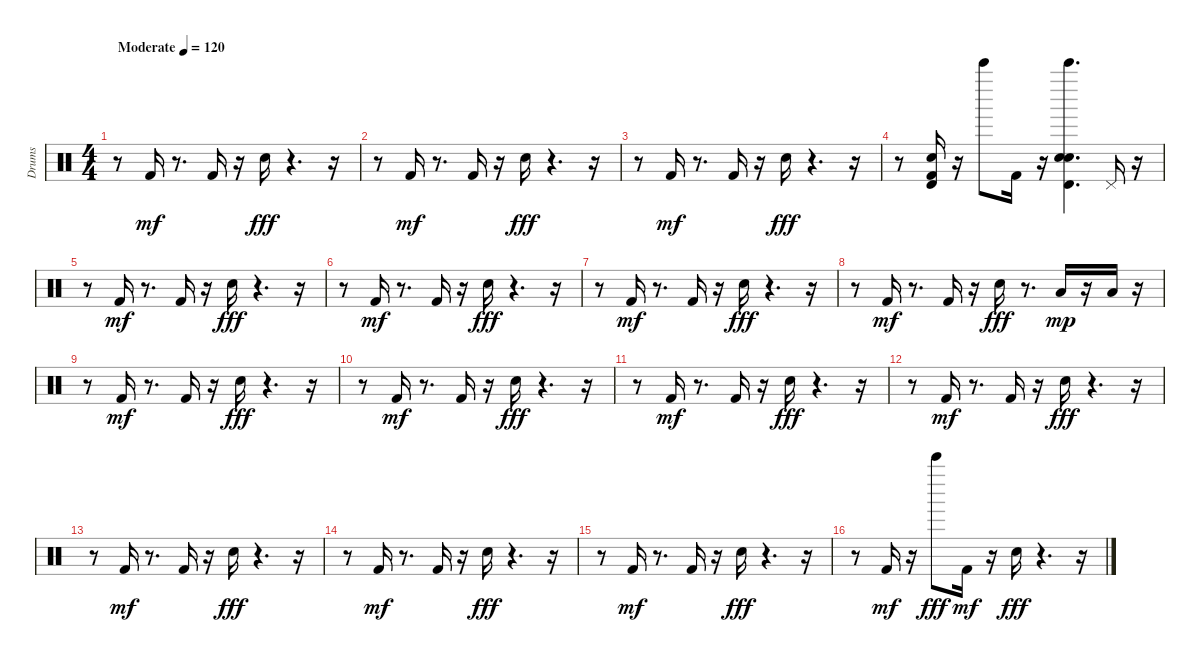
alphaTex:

\track ("Drums" "Drums") {instrument percussion}
\staff {score}
\articulation defaults
\ts (4 4)
\tempo (120 "Moderate")
\clef neutral
\ks c
r.8{dy mf} "Kick (hit) 2".16 r.8{d} "Kick (hit) 2".16 r.16 "Snare (hit) 2".16{dy fff} r.4{d} r.16 |
r.8 "Kick (hit) 2".16{dy mf} r.8{d} "Kick (hit) 2".16 r.16 "Snare (hit) 2".16{dy fff} r.4{d} r.16 |
r.8 "Kick (hit) 2".16{dy mf} r.8{d} "Kick (hit) 2".16 r.16 "Snare (hit) 2".16{dy fff} r.4{d} r.16 |
r.8 ("Electric Snare (hit)" "Timbale high (hit)" "Kick (hit) 2").16 r.16 "Bell Tree (hit)".8 "Kick (hit) 2".16 r.16 ("Electric Snare (hit)" "Bell Tree (hit)" "Timbale high (hit)" "Snare (hit) 2").4{d} "Pedal Hi-Hat (hit)".16 r.16 |
r.8 "Kick (hit) 2".16{dy mf} r.8{d} "Kick (hit) 2".16 r.16 "Snare (hit) 2".16{dy fff} r.4{d} r.16 |
r.8 "Kick (hit) 2".16{dy mf} r.8{d} "Kick (hit) 2".16 r.16 "Snare (hit) 2".16{dy fff} r.4{d} r.16 |
r.8 "Kick (hit) 2".16{dy mf} r.8{d} "Kick (hit) 2".16 r.16 "Snare (hit) 2".16{dy fff} r.4{d} r.16 |
r.8 "Kick (hit) 2".16{dy mf} r.8{d} "Kick (hit) 2".16 r.16 "Snare (hit) 2".16{dy fff} r.8{d} "Low Floor Tom (hit)".16{dy mp} r.16 "Low Floor Tom (hit)".16 r.16 |
r.8 "Kick (hit) 2".16{dy mf} r.8{d} "Kick (hit) 2".16 r.16 "Snare (hit) 2".16{dy fff} r.4{d} r.16 |
r.8 "Kick (hit) 2".16{dy mf} r.8{d} "Kick (hit) 2".16 r.16 "Snare (hit) 2".16{dy fff} r.4{d} r.16 |
r.8 "Kick (hit) 2".16{dy mf} r.8{d} "Kick (hit) 2".16 r.16 "Snare (hit) 2".16{dy fff} r.4{d} r.16 |
r.8 "Kick (hit) 2".16{dy mf} r.8{d} "Kick (hit) 2".16 r.16 "Snare (hit) 2".16{dy fff} r.4{d} r.16 |
r.8 "Kick (hit) 2".16{dy mf} r.8{d} "Kick (hit) 2".16 r.16 "Snare (hit) 2".16{dy fff} r.4{d} r.16 |
r.8 "Kick (hit) 2".16{dy mf} r.8{d} "Kick (hit) 2".16 r.16 "Snare (hit) 2".16{dy fff} r.4{d} r.16 |
r.8 "Kick (hit) 2".16{dy mf} r.8{d} "Kick (hit) 2".16 r.16 "Snare (hit) 2".16{dy fff} r.4{d} r.16 |
r.8 "Kick (hit) 2".16{dy mf} r.16 "Bell Tree (hit)".8{dy fff} "Kick (hit) 2".16{dy mf} r.16 "Snare (hit) 2".16{dy fff} r.4{d} r.16
